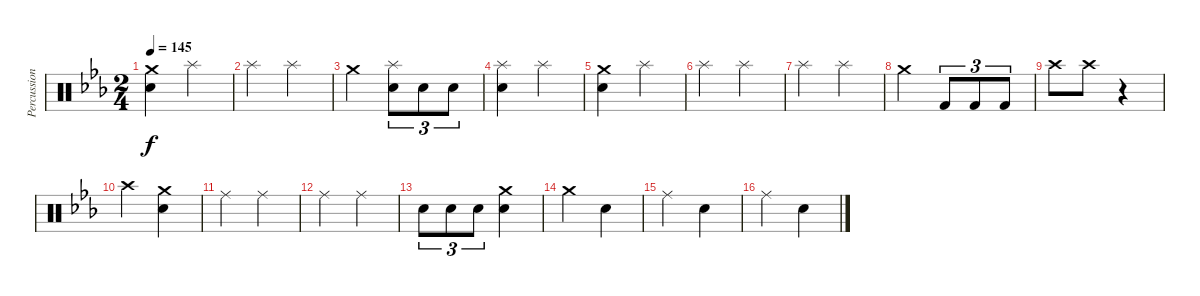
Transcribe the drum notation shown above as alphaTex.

\track ("Percussion" "Percussion") {instrument percussion}
\staff {score}
\articulation defaults
\ts (2 4)
\tempo 145
\clef neutral
\ks cminor
("Crash medium (hit)" "Electric Snare (hit)").4{dy f} "Splash (hit)".4 |
"Splash (hit)".4 "Splash (hit)".4 |
"Crash medium (hit)".4 ("Splash (hit)" "Electric Snare (hit)").8{tu (3 2)} "Electric Snare (hit)".8{tu (3 2)} "Electric Snare (hit)".8{tu (3 2)} |
("Splash (hit)" "Electric Snare (hit)").4 "Splash (hit)".4 |
("Crash medium (hit)" "Electric Snare (hit)").4 "Splash (hit)".4 |
"Splash (hit)".4 "Splash (hit)".4 |
"Splash (hit)".4 "Splash (hit)".4 |
"Crash medium (hit)".4 "Kick (hit) 2".8{tu (3 2)} "Kick (hit) 2".8{tu (3 2)} "Kick (hit) 2".8{tu (3 2)} |
"Crash high (hit)".8 "Crash high (hit)".8 r.4 |
"Crash high (hit)".4 ("Crash medium (hit)" "Electric Snare (hit)").4 |
"Ride (middle)".4 "Ride (middle)".4 |
"Ride (middle)".4 "Ride (middle)".4 |
"Electric Snare (hit)".8{tu (3 2)} "Electric Snare (hit)".8{tu (3 2)} "Electric Snare (hit)".8{tu (3 2)} ("Crash medium (hit)" "Electric Snare (hit)").4 |
"Crash medium (hit)".4 "Electric Snare (hit)".4 |
"Ride (middle)".4 "Electric Snare (hit)".4 |
"Ride (middle)".4 "Electric Snare (hit)".4
